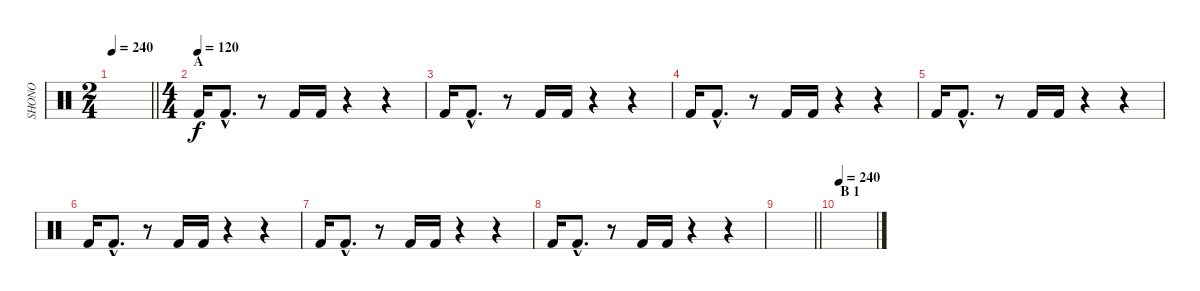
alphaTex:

\track ("SHONO" "SHONO") {instrument percussion}
\staff {score}
\articulation defaults
\ts (2 4)
\tempo 240
\clef neutral
\barLineRight lightlight
\ks c
|
\ts (4 4)
\section ("" "A")
\tempo (120)
"Kick (hit) 2".16 "Kick (hit) 2"{hac}.8{d} r.8 "Kick (hit) 2".16 "Kick (hit) 2".16 r.4 r.4 |
"Kick (hit) 2".16 "Kick (hit) 2"{hac}.8{d} r.8 "Kick (hit) 2".16 "Kick (hit) 2".16 r.4 r.4 |
"Kick (hit) 2".16 "Kick (hit) 2"{hac}.8{d} r.8 "Kick (hit) 2".16 "Kick (hit) 2".16 r.4 r.4 |
"Kick (hit) 2".16 "Kick (hit) 2"{hac}.8{d} r.8 "Kick (hit) 2".16 "Kick (hit) 2".16 r.4 r.4 |
"Kick (hit) 2".16 "Kick (hit) 2"{hac}.8{d} r.8 "Kick (hit) 2".16 "Kick (hit) 2".16 r.4 r.4 |
"Kick (hit) 2".16 "Kick (hit) 2"{hac}.8{d} r.8 "Kick (hit) 2".16 "Kick (hit) 2".16 r.4 r.4 |
"Kick (hit) 2".16 "Kick (hit) 2"{hac}.8{d} r.8 "Kick (hit) 2".16 "Kick (hit) 2".16 r.4 r.4 |
\barLineRight lightlight
|
\section ("" "B 1")
\tempo 240
